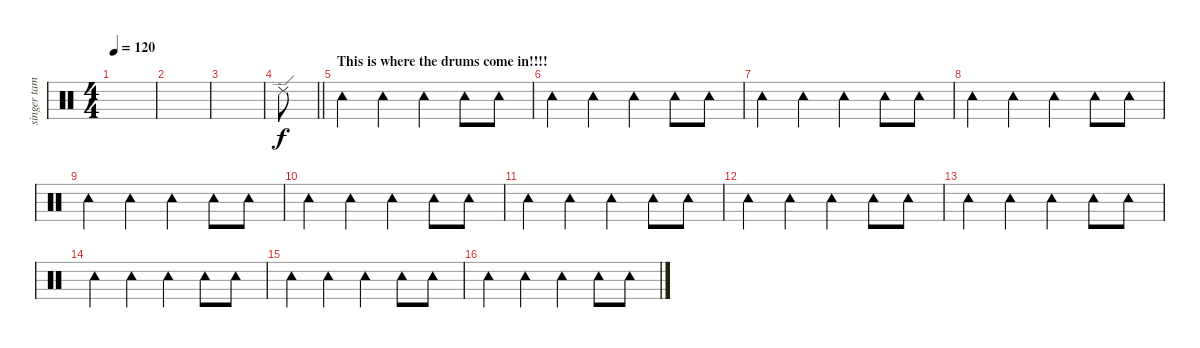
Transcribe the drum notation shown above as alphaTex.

\track ("singer tambo" "singer tam") {instrument percussion}
\staff {score}
\articulation defaults
\ts (4 4)
\tempo 120
\clef neutral
\ks c
|
|
|
\barLineRight lightlight "Ride (edge) 2".8
|
\section ("" "This is where the drums come in!!!!")
"Tambourine (hit)".4 "Tambourine (hit)".4 "Tambourine (hit)".4 "Tambourine (hit)".8 "Tambourine (hit)".8 |
"Tambourine (hit)".4 "Tambourine (hit)".4 "Tambourine (hit)".4 "Tambourine (hit)".8 "Tambourine (hit)".8 |
"Tambourine (hit)".4 "Tambourine (hit)".4 "Tambourine (hit)".4 "Tambourine (hit)".8 "Tambourine (hit)".8 |
"Tambourine (hit)".4 "Tambourine (hit)".4 "Tambourine (hit)".4 "Tambourine (hit)".8 "Tambourine (hit)".8 |
"Tambourine (hit)".4 "Tambourine (hit)".4 "Tambourine (hit)".4 "Tambourine (hit)".8 "Tambourine (hit)".8 |
"Tambourine (hit)".4 "Tambourine (hit)".4 "Tambourine (hit)".4 "Tambourine (hit)".8 "Tambourine (hit)".8 |
"Tambourine (hit)".4 "Tambourine (hit)".4 "Tambourine (hit)".4 "Tambourine (hit)".8 "Tambourine (hit)".8 |
"Tambourine (hit)".4 "Tambourine (hit)".4 "Tambourine (hit)".4 "Tambourine (hit)".8 "Tambourine (hit)".8 |
"Tambourine (hit)".4 "Tambourine (hit)".4 "Tambourine (hit)".4 "Tambourine (hit)".8 "Tambourine (hit)".8 |
"Tambourine (hit)".4 "Tambourine (hit)".4 "Tambourine (hit)".4 "Tambourine (hit)".8 "Tambourine (hit)".8 |
"Tambourine (hit)".4 "Tambourine (hit)".4 "Tambourine (hit)".4 "Tambourine (hit)".8 "Tambourine (hit)".8 |
"Tambourine (hit)".4 "Tambourine (hit)".4 "Tambourine (hit)".4 "Tambourine (hit)".8 "Tambourine (hit)".8
